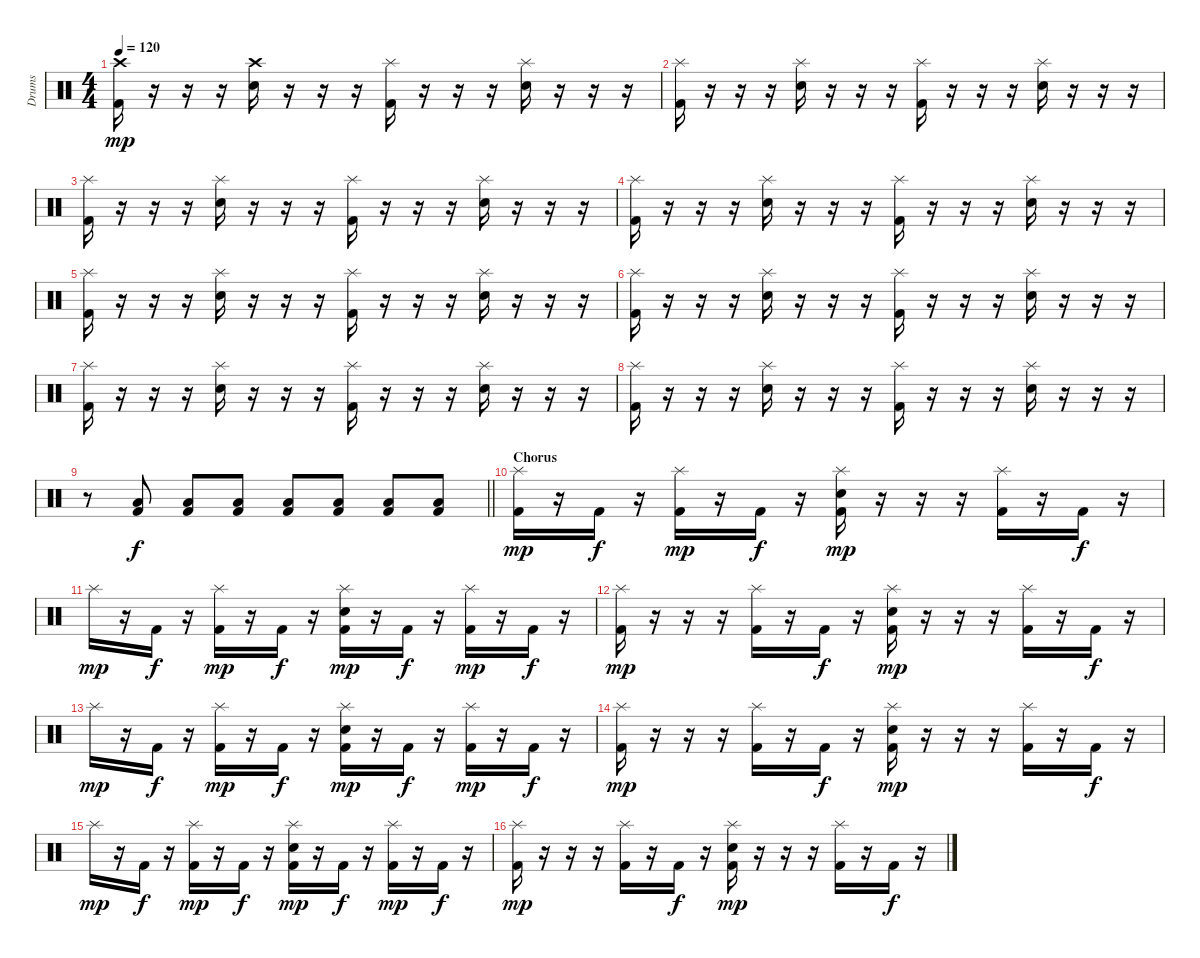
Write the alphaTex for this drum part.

\track ("Drums" "Drums") {instrument percussion}
\staff {score}
\articulation defaults
\ts (4 4)
\tempo 120
\clef neutral
\ks c
("Kick (hit) 2" "Crash high (hit)").16{dy mp} r.16 r.16 r.16 ("Crash high (hit)" "Snare (hit) 2").16 r.16 r.16 r.16 ("Kick (hit) 2" "Splash (hit)").16 r.16 r.16 r.16 ("Splash (hit)" "Snare (hit) 2").16 r.16 r.16 r.16 |
("Kick (hit) 2" "Splash (hit)").16 r.16 r.16 r.16 ("Splash (hit)" "Snare (hit) 2").16 r.16 r.16 r.16 ("Kick (hit) 2" "Splash (hit)").16 r.16 r.16 r.16 ("Splash (hit)" "Snare (hit) 2").16 r.16 r.16 r.16 |
("Kick (hit) 2" "Splash (hit)").16 r.16 r.16 r.16 ("Splash (hit)" "Snare (hit) 2").16 r.16 r.16 r.16 ("Kick (hit) 2" "Splash (hit)").16 r.16 r.16 r.16 ("Splash (hit)" "Snare (hit) 2").16 r.16 r.16 r.16 |
("Kick (hit) 2" "Splash (hit)").16 r.16 r.16 r.16 ("Splash (hit)" "Snare (hit) 2").16 r.16 r.16 r.16 ("Kick (hit) 2" "Splash (hit)").16 r.16 r.16 r.16 ("Splash (hit)" "Snare (hit) 2").16 r.16 r.16 r.16 |
("Kick (hit) 2" "Splash (hit)").16 r.16 r.16 r.16 ("Splash (hit)" "Snare (hit) 2").16 r.16 r.16 r.16 ("Kick (hit) 2" "Splash (hit)").16 r.16 r.16 r.16 ("Splash (hit)" "Snare (hit) 2").16 r.16 r.16 r.16 |
("Kick (hit) 2" "Splash (hit)").16 r.16 r.16 r.16 ("Splash (hit)" "Snare (hit) 2").16 r.16 r.16 r.16 ("Kick (hit) 2" "Splash (hit)").16 r.16 r.16 r.16 ("Splash (hit)" "Snare (hit) 2").16 r.16 r.16 r.16 |
("Kick (hit) 2" "Splash (hit)").16 r.16 r.16 r.16 ("Splash (hit)" "Snare (hit) 2").16 r.16 r.16 r.16 ("Kick (hit) 2" "Splash (hit)").16 r.16 r.16 r.16 ("Splash (hit)" "Snare (hit) 2").16 r.16 r.16 r.16 |
("Kick (hit) 2" "Splash (hit)").16 r.16 r.16 r.16 ("Splash (hit)" "Snare (hit) 2").16 r.16 r.16 r.16 ("Kick (hit) 2" "Splash (hit)").16 r.16 r.16 r.16 ("Splash (hit)" "Snare (hit) 2").16 r.16 r.16 r.16 |
\barLineRight lightlight
r.8 ("Kick (hit) 2" "Low Floor Tom (hit)").8{dy f} ("Kick (hit) 2" "Low Floor Tom (hit)").8 ("Kick (hit) 2" "Low Floor Tom (hit)").8 ("Kick (hit) 2" "Low Floor Tom (hit)").8 ("Kick (hit) 2" "Low Floor Tom (hit)").8 ("Kick (hit) 2" "Low Floor Tom (hit)").8 ("Kick (hit) 2" "Low Floor Tom (hit)").8 |
\section ("" "Chorus")
("Kick (hit) 2" "Splash (hit)").16{dy mp} r.16 "Kick (hit) 2".16{dy f} r.16 ("Kick (hit) 2" "Splash (hit)").16{dy mp} r.16 "Kick (hit) 2".16{dy f} r.16 ("Kick (hit) 2" "Splash (hit)" "Snare (hit) 2").16{dy mp} r.16 r.16 r.16 ("Kick (hit) 2" "Splash (hit)").16 r.16 "Kick (hit) 2".16{dy f} r.16 |
"Splash (hit)".16{dy mp} r.16 "Kick (hit) 2".16{dy f} r.16 ("Kick (hit) 2" "Splash (hit)").16{dy mp} r.16 "Kick (hit) 2".16{dy f} r.16 ("Kick (hit) 2" "Splash (hit)" "Snare (hit) 2").16{dy mp} r.16 "Kick (hit) 2".16{dy f} r.16 ("Kick (hit) 2" "Splash (hit)").16{dy mp} r.16 "Kick (hit) 2".16{dy f} r.16 |
("Kick (hit) 2" "Splash (hit)").16{dy mp} r.16 r.16 r.16 ("Kick (hit) 2" "Splash (hit)").16 r.16 "Kick (hit) 2".16{dy f} r.16 ("Kick (hit) 2" "Splash (hit)" "Snare (hit) 2").16{dy mp} r.16 r.16 r.16 ("Kick (hit) 2" "Splash (hit)").16 r.16 "Kick (hit) 2".16{dy f} r.16 |
"Splash (hit)".16{dy mp} r.16 "Kick (hit) 2".16{dy f} r.16 ("Kick (hit) 2" "Splash (hit)").16{dy mp} r.16 "Kick (hit) 2".16{dy f} r.16 ("Kick (hit) 2" "Splash (hit)" "Snare (hit) 2").16{dy mp} r.16 "Kick (hit) 2".16{dy f} r.16 ("Kick (hit) 2" "Splash (hit)").16{dy mp} r.16 "Kick (hit) 2".16{dy f} r.16 |
("Kick (hit) 2" "Splash (hit)").16{dy mp} r.16 r.16 r.16 ("Kick (hit) 2" "Splash (hit)").16 r.16 "Kick (hit) 2".16{dy f} r.16 ("Kick (hit) 2" "Splash (hit)" "Snare (hit) 2").16{dy mp} r.16 r.16 r.16 ("Kick (hit) 2" "Splash (hit)").16 r.16 "Kick (hit) 2".16{dy f} r.16 |
"Splash (hit)".16{dy mp} r.16 "Kick (hit) 2".16{dy f} r.16 ("Kick (hit) 2" "Splash (hit)").16{dy mp} r.16 "Kick (hit) 2".16{dy f} r.16 ("Kick (hit) 2" "Splash (hit)" "Snare (hit) 2").16{dy mp} r.16 "Kick (hit) 2".16{dy f} r.16 ("Kick (hit) 2" "Splash (hit)").16{dy mp} r.16 "Kick (hit) 2".16{dy f} r.16 |
("Kick (hit) 2" "Splash (hit)").16{dy mp} r.16 r.16 r.16 ("Kick (hit) 2" "Splash (hit)").16 r.16 "Kick (hit) 2".16{dy f} r.16 ("Kick (hit) 2" "Splash (hit)" "Snare (hit) 2").16{dy mp} r.16 r.16 r.16 ("Kick (hit) 2" "Splash (hit)").16 r.16 "Kick (hit) 2".16{dy f} r.16
